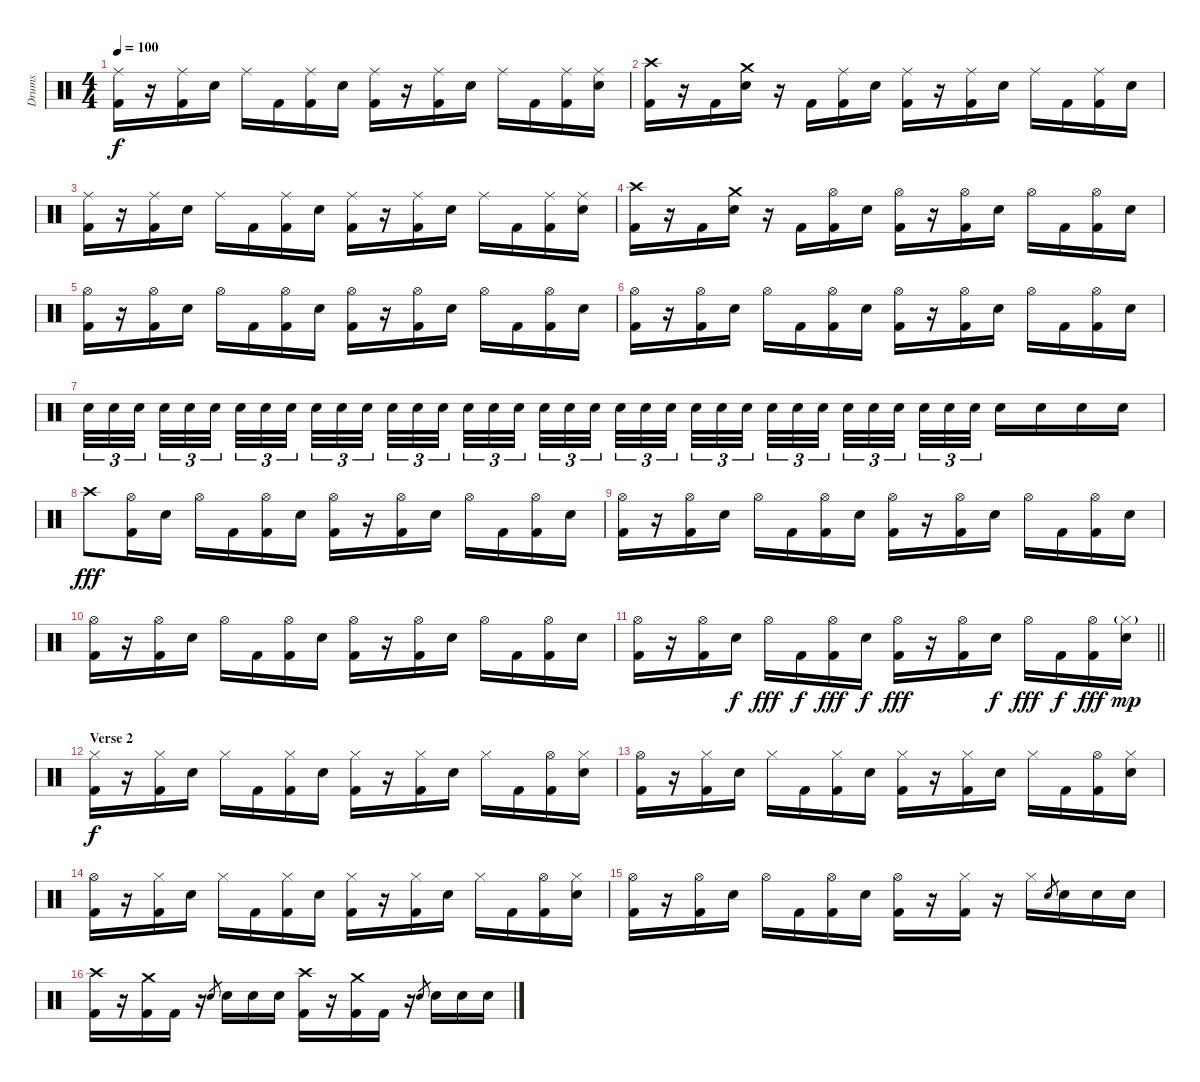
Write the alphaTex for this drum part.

\track ("Drums" "Drums") {instrument percussion}
\staff {score}
\articulation defaults
\ts (4 4)
\tempo 100
\clef neutral
\ks c
("Ride (middle)" "Kick (hit) 2").16{dy f} r.16 ("Ride (middle)" "Kick (hit) 2").16 "Electric Snare (hit)".16 "Ride (middle)".16 "Kick (hit) 2".16 ("Ride (middle)" "Kick (hit) 2").16 "Electric Snare (hit)".16 ("Ride (middle)" "Kick (hit) 2").16 r.16 ("Ride (middle)" "Kick (hit) 2").16 "Electric Snare (hit)".16 "Ride (middle)".16 "Kick (hit) 2".16 ("Ride (middle)" "Kick (hit) 2").16 ("Ride (middle)" "Electric Snare (hit)").16 |
("Crash high (hit)" "Kick (hit) 2").16 r.16 "Kick (hit) 2".16 ("Crash medium (hit)" "Electric Snare (hit)").16 r.16 "Kick (hit) 2".16 ("Ride (middle)" "Kick (hit) 2").16 "Electric Snare (hit)".16 ("Ride (middle)" "Kick (hit) 2").16 r.16 ("Ride (middle)" "Kick (hit) 2").16 "Electric Snare (hit)".16 "Ride (middle)".16 "Kick (hit) 2".16 ("Ride (middle)" "Kick (hit) 2").16 "Electric Snare (hit)".16 |
("Ride (middle)" "Kick (hit) 2").16 r.16 ("Ride (middle)" "Kick (hit) 2").16 "Electric Snare (hit)".16 "Ride (middle)".16 "Kick (hit) 2".16 ("Ride (middle)" "Kick (hit) 2").16 "Electric Snare (hit)".16 ("Ride (middle)" "Kick (hit) 2").16 r.16 ("Ride (middle)" "Kick (hit) 2").16 "Electric Snare (hit)".16 "Ride (middle)".16 "Kick (hit) 2".16 ("Ride (middle)" "Kick (hit) 2").16 ("Ride (middle)" "Electric Snare (hit)").16 |
("Crash high (hit)" "Kick (hit) 2").16 r.16 "Kick (hit) 2".16 ("Crash medium (hit)" "Electric Snare (hit)").16 r.16 "Kick (hit) 2".16 ("Hi-Hat (open)" "Kick (hit) 2").16 "Electric Snare (hit)".16 ("Hi-Hat (open)" "Kick (hit) 2").16 r.16 ("Hi-Hat (open)" "Kick (hit) 2").16 "Electric Snare (hit)".16 "Hi-Hat (open)".16 "Kick (hit) 2".16 ("Hi-Hat (open)" "Kick (hit) 2").16 "Electric Snare (hit)".16 |
("Hi-Hat (open)" "Kick (hit) 2").16 r.16 ("Hi-Hat (open)" "Kick (hit) 2").16 "Electric Snare (hit)".16 "Hi-Hat (open)".16 "Kick (hit) 2".16 ("Hi-Hat (open)" "Kick (hit) 2").16 "Electric Snare (hit)".16 ("Hi-Hat (open)" "Kick (hit) 2").16 r.16 ("Hi-Hat (open)" "Kick (hit) 2").16 "Electric Snare (hit)".16 "Hi-Hat (open)".16 "Kick (hit) 2".16 ("Hi-Hat (open)" "Kick (hit) 2").16 "Electric Snare (hit)".16 |
("Hi-Hat (open)" "Kick (hit) 2").16 r.16 ("Hi-Hat (open)" "Kick (hit) 2").16 "Electric Snare (hit)".16 "Hi-Hat (open)".16 "Kick (hit) 2".16 ("Hi-Hat (open)" "Kick (hit) 2").16 "Electric Snare (hit)".16 ("Hi-Hat (open)" "Kick (hit) 2").16 r.16 ("Hi-Hat (open)" "Kick (hit) 2").16 "Electric Snare (hit)".16 "Hi-Hat (open)".16 "Kick (hit) 2".16 ("Hi-Hat (open)" "Kick (hit) 2").16 "Electric Snare (hit)".16 |
"Electric Snare (hit)".32{tu (3 2)} "Electric Snare (hit)".32{tu (3 2)} "Electric Snare (hit)".32{tu (3 2) beam splitsecondary} "Electric Snare (hit)".32{tu (3 2)} "Electric Snare (hit)".32{tu (3 2)} "Electric Snare (hit)".32{tu (3 2) beam splitsecondary} "Electric Snare (hit)".32{tu (3 2)} "Electric Snare (hit)".32{tu (3 2)} "Electric Snare (hit)".32{tu (3 2) beam splitsecondary} "Electric Snare (hit)".32{tu (3 2)} "Electric Snare (hit)".32{tu (3 2)} "Electric Snare (hit)".32{tu (3 2)} "Electric Snare (hit)".32{tu (3 2)} "Electric Snare (hit)".32{tu (3 2)} "Electric Snare (hit)".32{tu (3 2) beam splitsecondary} "Electric Snare (hit)".32{tu (3 2)} "Electric Snare (hit)".32{tu (3 2)} "Electric Snare (hit)".32{tu (3 2) beam splitsecondary} "Electric Snare (hit)".32{tu (3 2)} "Electric Snare (hit)".32{tu (3 2)} "Electric Snare (hit)".32{tu (3 2) beam splitsecondary} "Electric Snare (hit)".32{tu (3 2)} "Electric Snare (hit)".32{tu (3 2)} "Electric Snare (hit)".32{tu (3 2)} "Electric Snare (hit)".32{tu (3 2)} "Electric Snare (hit)".32{tu (3 2)} "Electric Snare (hit)".32{tu (3 2) beam splitsecondary} "Electric Snare (hit)".32{tu (3 2)} "Electric Snare (hit)".32{tu (3 2)} "Electric Snare (hit)".32{tu (3 2) beam splitsecondary} "Electric Snare (hit)".32{tu (3 2)} "Electric Snare (hit)".32{tu (3 2)} "Electric Snare (hit)".32{tu (3 2) beam splitsecondary} "Electric Snare (hit)".32{tu (3 2)} "Electric Snare (hit)".32{tu (3 2)} "Electric Snare (hit)".32{tu (3 2)} "Electric Snare (hit)".16 "Electric Snare (hit)".16 "Electric Snare (hit)".16 "Electric Snare (hit)".16 |
"Crash high (hit)".8{dy fff} ("Hi-Hat (open)" "Kick (hit) 2").16 "Electric Snare (hit)".16 "Hi-Hat (open)".16 "Kick (hit) 2".16 ("Hi-Hat (open)" "Kick (hit) 2").16 "Electric Snare (hit)".16 ("Hi-Hat (open)" "Kick (hit) 2").16 r.16 ("Hi-Hat (open)" "Kick (hit) 2").16 "Electric Snare (hit)".16 "Hi-Hat (open)".16 "Kick (hit) 2".16 ("Hi-Hat (open)" "Kick (hit) 2").16 "Electric Snare (hit)".16 |
("Hi-Hat (open)" "Kick (hit) 2").16 r.16 ("Hi-Hat (open)" "Kick (hit) 2").16 "Electric Snare (hit)".16 "Hi-Hat (open)".16 "Kick (hit) 2".16 ("Hi-Hat (open)" "Kick (hit) 2").16 "Electric Snare (hit)".16 ("Hi-Hat (open)" "Kick (hit) 2").16 r.16 ("Hi-Hat (open)" "Kick (hit) 2").16 "Electric Snare (hit)".16 "Hi-Hat (open)".16 "Kick (hit) 2".16 ("Hi-Hat (open)" "Kick (hit) 2").16 "Electric Snare (hit)".16 |
("Hi-Hat (open)" "Kick (hit) 2").16 r.16 ("Hi-Hat (open)" "Kick (hit) 2").16 "Electric Snare (hit)".16 "Hi-Hat (open)".16 "Kick (hit) 2".16 ("Hi-Hat (open)" "Kick (hit) 2").16 "Electric Snare (hit)".16 ("Hi-Hat (open)" "Kick (hit) 2").16 r.16 ("Hi-Hat (open)" "Kick (hit) 2").16 "Electric Snare (hit)".16 "Hi-Hat (open)".16 "Kick (hit) 2".16 ("Hi-Hat (open)" "Kick (hit) 2").16 "Electric Snare (hit)".16 |
\barLineRight lightlight
("Hi-Hat (open)" "Kick (hit) 2").16 r.16 ("Hi-Hat (open)" "Kick (hit) 2").16 "Electric Snare (hit)".16{dy f} "Hi-Hat (open)".16{dy fff} "Kick (hit) 2".16{dy f} ("Hi-Hat (open)" "Kick (hit) 2").16{dy fff} "Electric Snare (hit)".16{dy f} ("Hi-Hat (open)" "Kick (hit) 2").16{dy fff} r.16 ("Hi-Hat (open)" "Kick (hit) 2").16 "Electric Snare (hit)".16{dy f} "Hi-Hat (open)".16{dy fff} "Kick (hit) 2".16{dy f} ("Hi-Hat (open)" "Kick (hit) 2").16{dy fff} ("Hi-Hat (closed)"{g} "Electric Snare (hit)").16{dy mp} |
\section ("" "Verse 2")
("Hi-Hat (closed)" "Kick (hit) 2").16{dy f} r.16 ("Hi-Hat (closed)" "Kick (hit) 2").16 "Electric Snare (hit)".16 "Hi-Hat (closed)".16 "Kick (hit) 2".16 ("Hi-Hat (closed)" "Kick (hit) 2").16 "Electric Snare (hit)".16 ("Hi-Hat (closed)" "Kick (hit) 2").16 r.16 ("Hi-Hat (closed)" "Kick (hit) 2").16 "Electric Snare (hit)".16 "Hi-Hat (closed)".16 "Kick (hit) 2".16 ("Hi-Hat (open)" "Kick (hit) 2").16 ("Hi-Hat (closed)" "Electric Snare (hit)").16 |
("Hi-Hat (open)" "Kick (hit) 2").16 r.16 ("Hi-Hat (closed)" "Kick (hit) 2").16 "Electric Snare (hit)".16 "Hi-Hat (closed)".16 "Kick (hit) 2".16 ("Hi-Hat (closed)" "Kick (hit) 2").16 "Electric Snare (hit)".16 ("Hi-Hat (closed)" "Kick (hit) 2").16 r.16 ("Hi-Hat (closed)" "Kick (hit) 2").16 "Electric Snare (hit)".16 "Hi-Hat (closed)".16 "Kick (hit) 2".16 ("Hi-Hat (open)" "Kick (hit) 2").16 ("Hi-Hat (closed)" "Electric Snare (hit)").16 |
("Hi-Hat (open)" "Kick (hit) 2").16 r.16 ("Hi-Hat (closed)" "Kick (hit) 2").16 "Electric Snare (hit)".16 "Hi-Hat (closed)".16 "Kick (hit) 2".16 ("Hi-Hat (closed)" "Kick (hit) 2").16 "Electric Snare (hit)".16 ("Hi-Hat (closed)" "Kick (hit) 2").16 r.16 ("Hi-Hat (closed)" "Kick (hit) 2").16 "Electric Snare (hit)".16 "Hi-Hat (closed)".16 "Kick (hit) 2".16 ("Hi-Hat (open)" "Kick (hit) 2").16 ("Hi-Hat (closed)" "Electric Snare (hit)").16 |
("Hi-Hat (open)" "Kick (hit) 2").16 r.16 ("Hi-Hat (open)" "Kick (hit) 2").16 "Electric Snare (hit)".16 "Hi-Hat (open)".16 "Kick (hit) 2".16 ("Hi-Hat (open)" "Kick (hit) 2").16 "Electric Snare (hit)".16 ("Hi-Hat (open)" "Kick (hit) 2").16 r.16 ("Hi-Hat (closed)" "Kick (hit) 2").16 r.16 "Hi-Hat (closed)".16 "Electric Snare (hit)".8{gr} "Electric Snare (hit)".16 "Electric Snare (hit)".16 "Electric Snare (hit)".16 |
("Crash high (hit)" "Kick (hit) 2").16 r.16 ("Crash medium (hit)" "Kick (hit) 2").16 "Kick (hit) 2".16 r.16 "Electric Snare (hit)".8{gr} "Electric Snare (hit)".16 "Electric Snare (hit)".16 "Electric Snare (hit)".16 ("Crash high (hit)" "Kick (hit) 2").16 r.16 ("Crash medium (hit)" "Kick (hit) 2").16 "Kick (hit) 2".16 r.16 "Electric Snare (hit)".8{gr} "Electric Snare (hit)".16 "Electric Snare (hit)".16 "Electric Snare (hit)".16
